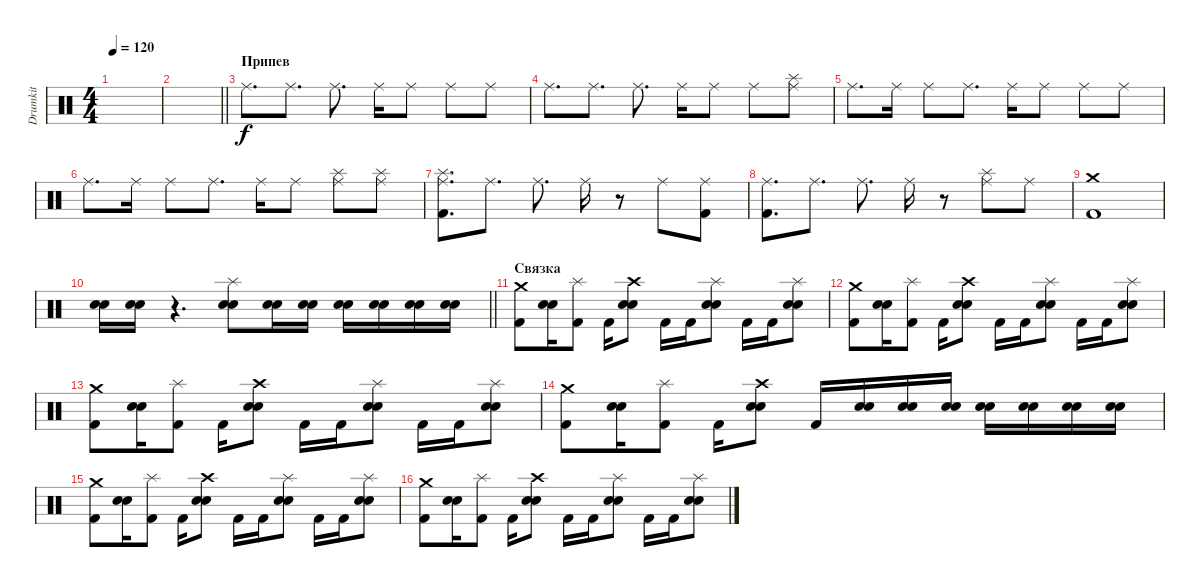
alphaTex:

\track ("Drumkit" "Drumkit") {instrument percussion}
\staff {score}
\articulation defaults
\ts (4 4)
\tempo 120
\clef neutral
\ks c
|
\barLineRight lightlight
|
\section ("" "Припев")
"Ride (middle)".8{d} "Ride (middle)".8{d} "Ride (middle)".8{d} "Ride (middle)".16 "Ride (middle)".8 "Ride (middle)".8 "Ride (middle)".8 |
"Ride (middle)".8{d} "Ride (middle)".8{d} "Ride (middle)".8{d} "Ride (middle)".16 "Ride (middle)".8 "Ride (middle)".8 ("Splash (hit)" "Ride (middle)").8 |
"Ride (middle)".8{d} "Ride (middle)".16 "Ride (middle)".8 "Ride (middle)".8{d} "Ride (middle)".16 "Ride (middle)".8 "Ride (middle)".8 "Ride (middle)".8 |
"Ride (middle)".8{d} "Ride (middle)".16 "Ride (middle)".8 "Ride (middle)".8{d} "Ride (middle)".16 "Ride (middle)".8 ("Splash (hit)" "Ride (middle)").8 ("Splash (hit)" "Ride (middle)").8 |
("Splash (hit)" "Ride (middle)" "Kick (hit) 2").8{d} "Ride (middle)".8{d} "Ride (middle)".8{d} "Ride (middle)".16 r.8 "Ride (middle)".8 ("Ride (middle)" "Kick (hit) 2").8 |
("Ride (middle)" "Kick (hit) 2").8{d} "Ride (middle)".8{d} "Ride (middle)".8{d} "Ride (middle)".16 r.8 ("Splash (hit)" "Ride (middle)").8 "Ride (middle)".8 |
("Crash medium (hit)" "Kick (hit) 2").1{dy f} |
\barLineRight lightlight
("Electric Snare (hit)" "Snare (hit) 2").16 ("Electric Snare (hit)" "Snare (hit) 2").16 r.4{d} ("Splash (hit)" "Electric Snare (hit)" "Snare (hit) 2").8 ("Electric Snare (hit)" "Snare (hit) 2").16 ("Electric Snare (hit)" "Snare (hit) 2").16 ("Electric Snare (hit)" "Snare (hit) 2").16 ("Electric Snare (hit)" "Snare (hit) 2").16 ("Electric Snare (hit)" "Snare (hit) 2").16 ("Electric Snare (hit)" "Snare (hit) 2").16 |
\section ("" "Связка")
("Crash medium (hit)" "Kick (hit) 2").8 ("Electric Snare (hit)" "Snare (hit) 2").16 ("Splash (hit)" "Kick (hit) 2").8 "Kick (hit) 2".16 ("Crash high (hit)" "Electric Snare (hit)" "Snare (hit) 2").8 "Kick (hit) 2".16 "Kick (hit) 2".16 ("Splash (hit)" "Electric Snare (hit)" "Snare (hit) 2").8 "Kick (hit) 2".16 "Kick (hit) 2".16 ("Splash (hit)" "Electric Snare (hit)" "Snare (hit) 2").8 |
("Crash medium (hit)" "Kick (hit) 2").8 ("Electric Snare (hit)" "Snare (hit) 2").16 ("Splash (hit)" "Kick (hit) 2").8 "Kick (hit) 2".16 ("Crash high (hit)" "Electric Snare (hit)" "Snare (hit) 2").8 "Kick (hit) 2".16 "Kick (hit) 2".16 ("Splash (hit)" "Electric Snare (hit)" "Snare (hit) 2").8 "Kick (hit) 2".16 "Kick (hit) 2".16 ("Splash (hit)" "Electric Snare (hit)" "Snare (hit) 2").8 |
("Crash medium (hit)" "Kick (hit) 2").8 ("Electric Snare (hit)" "Snare (hit) 2").16 ("Splash (hit)" "Kick (hit) 2").8 "Kick (hit) 2".16 ("Crash high (hit)" "Electric Snare (hit)" "Snare (hit) 2").8 "Kick (hit) 2".16 "Kick (hit) 2".16 ("Splash (hit)" "Electric Snare (hit)" "Snare (hit) 2").8 "Kick (hit) 2".16 "Kick (hit) 2".16 ("Splash (hit)" "Electric Snare (hit)" "Snare (hit) 2").8 |
("Crash medium (hit)" "Kick (hit) 2").8 ("Electric Snare (hit)" "Snare (hit) 2").16 ("Splash (hit)" "Kick (hit) 2").8 "Kick (hit) 2".16 ("Crash high (hit)" "Electric Snare (hit)" "Snare (hit) 2").8 "Kick (hit) 2".16 ("Electric Snare (hit)" "Snare (hit) 2").16 ("Electric Snare (hit)" "Snare (hit) 2").16 ("Electric Snare (hit)" "Snare (hit) 2").16 ("Electric Snare (hit)" "Snare (hit) 2").16 ("Electric Snare (hit)" "Snare (hit) 2").16 ("Electric Snare (hit)" "Snare (hit) 2").16 ("Electric Snare (hit)" "Snare (hit) 2").16 |
("Crash medium (hit)" "Kick (hit) 2").8 ("Electric Snare (hit)" "Snare (hit) 2").16 ("Splash (hit)" "Kick (hit) 2").8 "Kick (hit) 2".16 ("Crash high (hit)" "Electric Snare (hit)" "Snare (hit) 2").8 "Kick (hit) 2".16 "Kick (hit) 2".16 ("Splash (hit)" "Electric Snare (hit)" "Snare (hit) 2").8 "Kick (hit) 2".16 "Kick (hit) 2".16 ("Splash (hit)" "Electric Snare (hit)" "Snare (hit) 2").8 |
("Crash medium (hit)" "Kick (hit) 2").8 ("Electric Snare (hit)" "Snare (hit) 2").16 ("Splash (hit)" "Kick (hit) 2").8 "Kick (hit) 2".16 ("Crash high (hit)" "Electric Snare (hit)" "Snare (hit) 2").8 "Kick (hit) 2".16 "Kick (hit) 2".16 ("Splash (hit)" "Electric Snare (hit)" "Snare (hit) 2").8 "Kick (hit) 2".16 "Kick (hit) 2".16 ("Splash (hit)" "Electric Snare (hit)" "Snare (hit) 2").8
